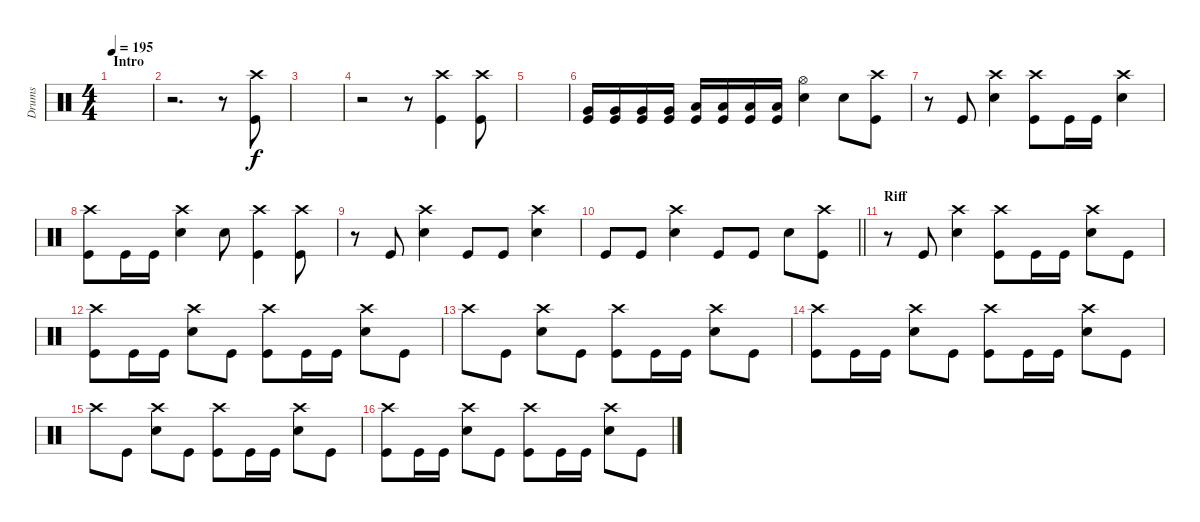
\track ("Drums" "Drums") {instrument percussion}
\staff {score}
\articulation defaults
\ts (4 4)
\section ("" "Intro")
\tempo 195
\clef neutral
\ks c
|
r.2{d} r.8 ("Kick (hit)" "Crash high (hit)").8 |
|
r.2 r.8 ("Kick (hit)" "Crash high (hit)").4 ("Kick (hit)" "Crash high (hit)").8 |
|
("Kick (hit)" "Very Low Tom (hit)").16 ("Kick (hit)" "Very Low Tom (hit)").16 ("Kick (hit)" "Very Low Tom (hit)").16 ("Kick (hit)" "Very Low Tom (hit)").16 ("Kick (hit)" "Low Floor Tom (hit)").16 ("Kick (hit)" "Low Floor Tom (hit)").16 ("Kick (hit)" "Low Floor Tom (hit)").16 ("Kick (hit)" "Low Floor Tom (hit)").16 ("Snare (hit) 2" "Hi-Hat (open)").4 "Snare (hit) 2".8 ("Kick (hit)" "Crash high (hit)").8 |
r.8 "Kick (hit)".8 ("Snare (hit) 2" "Crash high (hit)").4 ("Kick (hit)" "Crash high (hit)").8 "Kick (hit)".16 "Kick (hit)".16 ("Snare (hit) 2" "Crash high (hit)").4 |
("Kick (hit)" "Crash high (hit)").8 "Kick (hit)".16 "Kick (hit)".16 ("Snare (hit) 2" "Crash high (hit)").4 "Snare (hit) 2".8 ("Kick (hit)" "Crash high (hit)").4 ("Kick (hit)" "Crash high (hit)").8 |
r.8 "Kick (hit)".8 ("Snare (hit) 2" "Crash high (hit)").4 "Kick (hit)".8 "Kick (hit)".8 ("Snare (hit) 2" "Crash high (hit)").4 |
\barLineRight lightlight "Kick (hit)".8 "Kick (hit)".8
("Snare (hit) 2" "Crash high (hit)").4 "Kick (hit)".8 "Kick (hit)".8 "Snare (hit) 2".8 ("Kick (hit)" "Crash high (hit)").8 |
\section ("" "Riff")
r.8 "Kick (hit)".8 ("Snare (hit) 2" "Crash high (hit)").4 ("Kick (hit)" "Crash high (hit)").8 "Kick (hit)".16 "Kick (hit)".16 ("Snare (hit) 2" "Crash high (hit)").8 "Kick (hit)".8 |
("Kick (hit)" "Crash high (hit)").8 "Kick (hit)".16 "Kick (hit)".16 ("Snare (hit) 2" "Crash high (hit)").8 "Kick (hit)".8 ("Kick (hit)" "Crash high (hit)").8 "Kick (hit)".16 "Kick (hit)".16 ("Snare (hit) 2" "Crash high (hit)").8 "Kick (hit)".8 |
"Crash high (hit)".8 "Kick (hit)".8 ("Snare (hit) 2" "Crash high (hit)").8 "Kick (hit)".8 ("Kick (hit)" "Crash high (hit)").8 "Kick (hit)".16 "Kick (hit)".16 ("Snare (hit) 2" "Crash high (hit)").8 "Kick (hit)".8 |
("Kick (hit)" "Crash high (hit)").8 "Kick (hit)".16 "Kick (hit)".16 ("Snare (hit) 2" "Crash high (hit)").8 "Kick (hit)".8 ("Kick (hit)" "Crash high (hit)").8 "Kick (hit)".16 "Kick (hit)".16 ("Snare (hit) 2" "Crash high (hit)").8 "Kick (hit)".8 |
"Crash high (hit)".8 "Kick (hit)".8 ("Snare (hit) 2" "Crash high (hit)").8 "Kick (hit)".8 ("Kick (hit)" "Crash high (hit)").8 "Kick (hit)".16 "Kick (hit)".16 ("Snare (hit) 2" "Crash high (hit)").8 "Kick (hit)".8 |
("Kick (hit)" "Crash high (hit)").8 "Kick (hit)".16 "Kick (hit)".16 ("Snare (hit) 2" "Crash high (hit)").8 "Kick (hit)".8 ("Kick (hit)" "Crash high (hit)").8 "Kick (hit)".16 "Kick (hit)".16 ("Snare (hit) 2" "Crash high (hit)").8 "Kick (hit)".8
